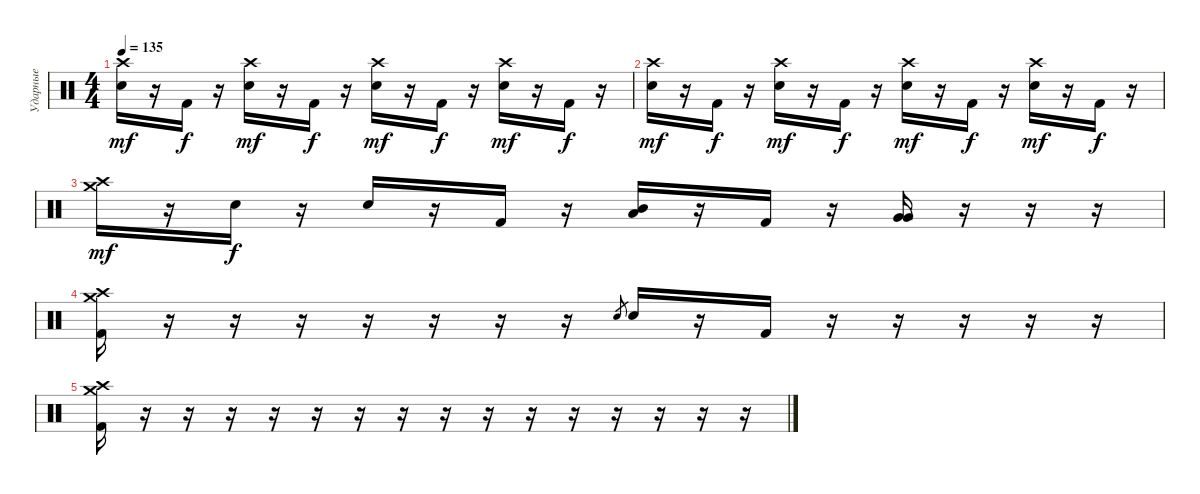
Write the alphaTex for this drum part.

\track ("Ударные" "Ударные") {instrument percussion}
\staff {score}
\articulation defaults
\ts (4 4)
\tempo 135
\clef neutral
\ks c
("Crash high (hit)" "Electric Snare (hit)").16{dy mf} r.16 "Kick (hit) 2".16{dy f} r.16 ("Crash high (hit)" "Electric Snare (hit)").16{dy mf} r.16 "Kick (hit) 2".16{dy f} r.16 ("Crash high (hit)" "Electric Snare (hit)").16{dy mf} r.16 "Kick (hit) 2".16{dy f} r.16 ("Crash high (hit)" "Electric Snare (hit)").16{dy mf} r.16 "Kick (hit) 2".16{dy f} r.16 |
("Crash high (hit)" "Electric Snare (hit)").16{dy mf} r.16 "Kick (hit) 2".16{dy f} r.16 ("Crash high (hit)" "Electric Snare (hit)").16{dy mf} r.16 "Kick (hit) 2".16{dy f} r.16 ("Crash high (hit)" "Electric Snare (hit)").16{dy mf} r.16 "Kick (hit) 2".16{dy f} r.16 ("Crash high (hit)" "Electric Snare (hit)").16{dy mf} r.16 "Kick (hit) 2".16{dy f} r.16 |
("Crash medium (hit)" "Crash high (hit)").16{dy mf} r.16 "Electric Snare (hit)".16{dy f} r.16 "Electric Snare (hit)".16 r.16 "Kick (hit) 2".16 r.16 ("Low Tom (hit)" "Mid Tom (hit)").16 r.16 "Kick (hit) 2".16 r.16 ("Very Low Tom (hit)" "Very Low Tom (hit)").16 r.16 r.16 r.16 |
("Crash medium (hit)" "Crash high (hit)" "Kick (hit) 2").16 r.16 r.16 r.16 r.16 r.16 r.16 r.16 "Electric Snare (hit)".8{gr} "Electric Snare (hit)".16 r.16 "Kick (hit) 2".16 r.16 r.16 r.16 r.16 r.16 |
("Crash medium (hit)" "Crash high (hit)" "Kick (hit) 2").16 r.16 r.16 r.16 r.16 r.16 r.16 r.16 r.16 r.16 r.16 r.16 r.16 r.16 r.16 r.16
